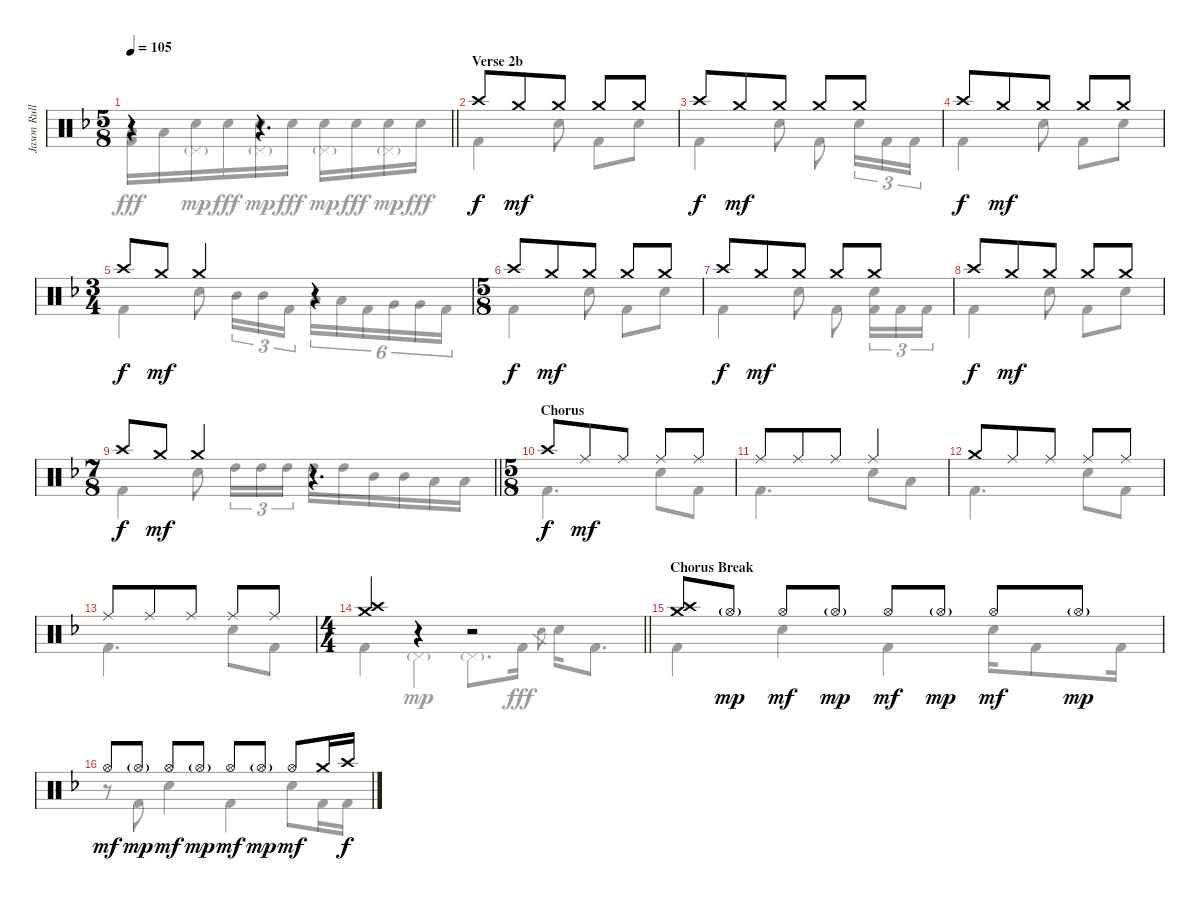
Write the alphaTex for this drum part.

\track ("Jason Rullo Drums" "Jason Rull") {instrument percussion}
\staff {score}
\articulation defaults
\voice
\ts (5 8)
\tempo 105
\clef neutral
\barLineRight lightlight
\ks dminor
r.4{dy f} r.4{d} |
\section ("" "Verse 2b")
"Crash high (hit)".8 "Crash medium (hit)".8{dy mf} "Crash medium (hit)".8 "Crash medium (hit)".8 "Crash medium (hit)".8 |
"Crash high (hit)".8{dy f} "Crash medium (hit)".8{dy mf} "Crash medium (hit)".8 "Crash medium (hit)".8 "Crash medium (hit)".8 |
"Crash high (hit)".8{dy f} "Crash medium (hit)".8{dy mf} "Crash medium (hit)".8 "Crash medium (hit)".8 "Crash medium (hit)".8 |
\ts (3 4)
"Crash high (hit)".8{dy f} "Crash medium (hit)".8{dy mf} "Crash medium (hit)".4 r.4 |
\ts (5 8)
"Crash high (hit)".8{dy f} "Crash medium (hit)".8{dy mf} "Crash medium (hit)".8 "Crash medium (hit)".8 "Crash medium (hit)".8 |
"Crash high (hit)".8{dy f} "Crash medium (hit)".8{dy mf} "Crash medium (hit)".8 "Crash medium (hit)".8 "Crash medium (hit)".8 |
"Crash high (hit)".8{dy f} "Crash medium (hit)".8{dy mf} "Crash medium (hit)".8 "Crash medium (hit)".8 "Crash medium (hit)".8 |
\ts (7 8)
\barLineRight lightlight "Crash high (hit)".8{dy f} "Crash medium (hit)".8{dy mf} "Crash medium (hit)".4
r.4{d} |
\ts (5 8)
\section ("" "Chorus")
"Crash high (hit)".8{dy f} "Ride (middle)".8{dy mf} "Ride (middle)".8 "Ride (middle)".8 "Ride (middle)".8 |
"Ride (middle)".8 "Ride (middle)".8 "Ride (middle)".8 "Ride (middle)".4 |
"Crash medium (hit)".8 "Ride (middle)".8 "Ride (middle)".8 "Ride (middle)".8 "Ride (middle)".8 |
"Ride (middle)".8 "Ride (middle)".8 "Ride (middle)".8 "Ride (middle)".8 "Ride (middle)".8 |
\ts (4 4)
\barLineRight lightlight
("Crash high (hit)" "Crash medium (hit)").4 r.4 r.2 |
\section ("" "Chorus Break")
("Crash high (hit)" "Crash medium (hit)").8 "Hi-Hat (open)"{g}.8{dy mp} "Hi-Hat (open)".8{dy mf} "Hi-Hat (open)"{g}.8{dy mp} "Hi-Hat (open)".8{dy mf} "Hi-Hat (open)"{g}.8{dy mp} "Hi-Hat (open)".8{dy mf} "Hi-Hat (open)"{g}.8{dy mp} |
"Hi-Hat (open)".8{dy mf} "Hi-Hat (open)"{g}.8{dy mp} "Hi-Hat (open)".8{dy mf} "Hi-Hat (open)"{g}.8{dy mp} "Hi-Hat (open)".8{dy mf} "Hi-Hat (open)"{g}.8{dy mp} "Hi-Hat (open)".8{dy mf} "Crash medium (hit)".16 "Crash high (hit)".16{dy f}
\voice
\clef neutral
\ottava regular
\simile none
\barLineRight lightlight
\ks dminor
("Low Tom (hit)" "Kick (hit) 2").16{dy fff} "Low Tom (hit)".16 ("Electric Snare (hit)" "Pedal Hi-Hat (hit)"{g}).16{dy mp} "Electric Snare (hit)".16{dy fff} ("Electric Snare (hit)" "Pedal Hi-Hat (hit)"{g}).16{dy mp} "Electric Snare (hit)".16{dy fff} ("Electric Snare (hit)" "Pedal Hi-Hat (hit)"{g}).16{dy mp} "Electric Snare (hit)".16{dy fff} ("Electric Snare (hit)" "Pedal Hi-Hat (hit)"{g}).16{dy mp} "Electric Snare (hit)".16{dy fff} |
"Kick (hit) 2".4 "Electric Snare (hit)".8 "Kick (hit) 2".8 "Electric Snare (hit)".8 |
"Kick (hit) 2".4 "Electric Snare (hit)".8 "Kick (hit) 2".8 "Electric Snare (hit)".16{tu (3 2)} "Kick (hit) 2".16{tu (3 2)} "Kick (hit) 2".16{tu (3 2)} |
"Kick (hit) 2".4 "Electric Snare (hit)".8 "Kick (hit) 2".8 "Electric Snare (hit)".8 |
"Kick (hit) 2".4 "Electric Snare (hit)".8 "Mid Tom (hit)".16{tu (3 2)} "Mid Tom (hit)".16{tu (3 2)} "Kick (hit) 2".16{tu (3 2)} "Low Tom (hit)".16{tu (6 4)} "Low Tom (hit)".16{tu (6 4)} "Kick (hit) 2".16{tu (6 4)} "Very Low Tom (hit)".16{tu (6 4)} "Very Low Tom (hit)".16{tu (6 4)} "Kick (hit) 2".16{tu (6 4)} |
"Kick (hit) 2".4 "Electric Snare (hit)".8 "Kick (hit) 2".8 "Electric Snare (hit)".8 |
"Kick (hit) 2".4 "Electric Snare (hit)".8 "Kick (hit) 2".8 ("Electric Snare (hit)" "Kick (hit) 2").16{tu (3 2)} "Kick (hit) 2".16{tu (3 2)} "Kick (hit) 2".16{tu (3 2)} |
"Kick (hit) 2".4 "Electric Snare (hit)".8 "Kick (hit) 2".8 "Electric Snare (hit)".8 |
\barLineRight lightlight "Kick (hit) 2".4 "Electric Snare (hit)".8 "High Tom (hit)".16{tu (3 2)} "High Tom (hit)".16{tu (3 2)} "High Tom (hit)".16{tu (3 2)} "High Tom (hit)".16 "High Tom (hit)".16 "Mid Tom (hit)".16 "Mid Tom (hit)".16 "Low Tom (hit)".16 "Low Tom (hit)".16
|
"Kick (hit) 2".4{d} "Electric Snare (hit)".8 "Kick (hit) 2".8 |
"Kick (hit) 2".4{d} "Electric Snare (hit)".8 "Low Tom (hit)".8 |
"Kick (hit) 2".4{d} "Electric Snare (hit)".8 "Kick (hit) 2".8 |
"Kick (hit) 2".4{d} "Electric Snare (hit)".8 "Kick (hit) 2".8 |
\barLineRight lightlight "Kick (hit) 2".4 "Pedal Hi-Hat (hit)"{g}.4{dy mp} "Pedal Hi-Hat (hit)"{g}.8{d} "Kick (hit) 2".16{dy fff} "Electric Snare (hit)".8{gr} "Electric Snare (hit)".16 "Kick (hit) 2".8{d}
|
"Kick (hit) 2".4 "Electric Snare (hit)".4 "Kick (hit) 2".4 "Electric Snare (hit)".16 "Kick (hit) 2".8 "Kick (hit) 2".16 |
r.8 "Kick (hit) 2".8 "Electric Snare (hit)".4 "Kick (hit) 2".4 "Electric Snare (hit)".8 "Kick (hit) 2".16 "Kick (hit) 2".16
